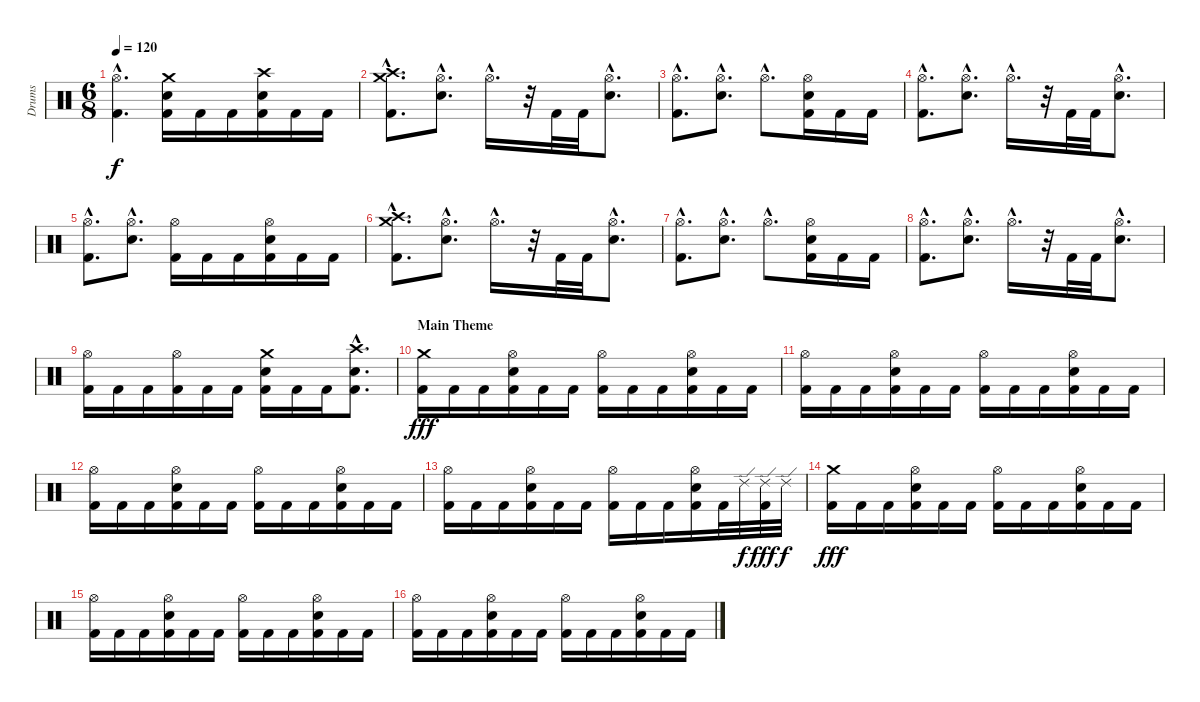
\track ("Drums" "Drums") {instrument percussion}
\staff {score}
\articulation defaults
\ts (6 8)
\tempo 120
\clef neutral
\ks c
("Hi-Hat (open)"{hac} "Kick (hit) 2"{hac}).4{d dy f} ("Crash medium (hit)" "Snare (hit) 2" "Kick (hit) 2").16 "Kick (hit) 2".16 "Kick (hit) 2".16 ("Crash high (hit)" "Snare (hit) 2" "Kick (hit) 2").16 "Kick (hit) 2".16 "Kick (hit) 2".16 |
("Crash medium (hit)"{hac} "Crash high (hit)"{hac} "Kick (hit) 2"{hac}).8{d} ("Hi-Hat (open)"{hac} "Snare (hit) 2"{hac}).8{d} "Hi-Hat (open)"{hac}.16{d} r.32 "Kick (hit) 2".32 "Kick (hit) 2".32 ("Hi-Hat (open)"{hac} "Snare (hit) 2"{hac}).8{d} |
("Hi-Hat (open)"{hac} "Kick (hit) 2"{hac}).8{d} ("Hi-Hat (open)"{hac} "Snare (hit) 2"{hac}).8{d} "Hi-Hat (open)"{hac}.8{d} ("Hi-Hat (open)" "Snare (hit) 2" "Kick (hit) 2").16 "Kick (hit) 2".16 "Kick (hit) 2".16 |
("Hi-Hat (open)"{hac} "Kick (hit) 2"{hac}).8{d} ("Hi-Hat (open)"{hac} "Snare (hit) 2"{hac}).8{d} "Hi-Hat (open)"{hac}.16{d} r.32 "Kick (hit) 2".32 "Kick (hit) 2".32 ("Hi-Hat (open)"{hac} "Snare (hit) 2"{hac}).8{d} |
("Hi-Hat (open)"{hac} "Kick (hit) 2"{hac}).8{d} ("Hi-Hat (open)"{hac} "Snare (hit) 2"{hac}).8{d} ("Hi-Hat (open)" "Kick (hit) 2").16 "Kick (hit) 2".16 "Kick (hit) 2".16 ("Hi-Hat (open)" "Snare (hit) 2" "Kick (hit) 2").16 "Kick (hit) 2".16 "Kick (hit) 2".16 |
("Crash medium (hit)"{hac} "Crash high (hit)"{hac} "Kick (hit) 2"{hac}).8{d} ("Hi-Hat (open)"{hac} "Snare (hit) 2"{hac}).8{d} "Hi-Hat (open)"{hac}.16{d} r.32 "Kick (hit) 2".32 "Kick (hit) 2".32 ("Hi-Hat (open)"{hac} "Snare (hit) 2"{hac}).8{d} |
("Hi-Hat (open)"{hac} "Kick (hit) 2"{hac}).8{d} ("Hi-Hat (open)"{hac} "Snare (hit) 2"{hac}).8{d} "Hi-Hat (open)"{hac}.8{d} ("Hi-Hat (open)" "Snare (hit) 2" "Kick (hit) 2").16 "Kick (hit) 2".16 "Kick (hit) 2".16 |
("Hi-Hat (open)"{hac} "Kick (hit) 2"{hac}).8{d} ("Hi-Hat (open)"{hac} "Snare (hit) 2"{hac}).8{d} "Hi-Hat (open)"{hac}.16{d} r.32 "Kick (hit) 2".32 "Kick (hit) 2".32 ("Hi-Hat (open)"{hac} "Snare (hit) 2"{hac}).8{d} |
("Hi-Hat (open)" "Kick (hit) 2").16 "Kick (hit) 2".16 "Kick (hit) 2".16 ("Hi-Hat (open)" "Kick (hit) 2").16 "Kick (hit) 2".16 "Kick (hit) 2".16 ("Crash medium (hit)" "Snare (hit) 2" "Kick (hit) 2").16 "Kick (hit) 2".16 "Kick (hit) 2".16 ("Crash high (hit)"{hac} "Snare (hit) 2"{hac} "Kick (hit) 2"{hac}).8{d} |
\section ("" "Main Theme")
("Crash medium (hit)" "Kick (hit) 2").16{dy fff} "Kick (hit) 2".16 "Kick (hit) 2".16 ("Hi-Hat (open)" "Snare (hit) 2" "Kick (hit) 2").16 "Kick (hit) 2".16 "Kick (hit) 2".16 ("Hi-Hat (open)" "Kick (hit) 2").16 "Kick (hit) 2".16 "Kick (hit) 2".16 ("Hi-Hat (open)" "Snare (hit) 2" "Kick (hit) 2").16 "Kick (hit) 2".16 "Kick (hit) 2".16 |
("Hi-Hat (open)" "Kick (hit) 2").16 "Kick (hit) 2".16 "Kick (hit) 2".16 ("Hi-Hat (open)" "Snare (hit) 2" "Kick (hit) 2").16 "Kick (hit) 2".16 "Kick (hit) 2".16 ("Hi-Hat (open)" "Kick (hit) 2").16 "Kick (hit) 2".16 "Kick (hit) 2".16 ("Hi-Hat (open)" "Snare (hit) 2" "Kick (hit) 2").16 "Kick (hit) 2".16 "Kick (hit) 2".16 |
("Hi-Hat (open)" "Kick (hit) 2").16 "Kick (hit) 2".16 "Kick (hit) 2".16 ("Hi-Hat (open)" "Snare (hit) 2" "Kick (hit) 2").16 "Kick (hit) 2".16 "Kick (hit) 2".16 ("Hi-Hat (open)" "Kick (hit) 2").16 "Kick (hit) 2".16 "Kick (hit) 2".16 ("Hi-Hat (open)" "Snare (hit) 2" "Kick (hit) 2").16 "Kick (hit) 2".16 "Kick (hit) 2".16 |
("Hi-Hat (open)" "Kick (hit) 2").16 "Kick (hit) 2".16 "Kick (hit) 2".16 ("Hi-Hat (open)" "Snare (hit) 2" "Kick (hit) 2").16 "Kick (hit) 2".16 "Kick (hit) 2".16 ("Hi-Hat (open)" "Kick (hit) 2").16 "Kick (hit) 2".16 "Kick (hit) 2".16 ("Hi-Hat (open)" "Snare (hit) 2" "Kick (hit) 2").16 "Kick (hit) 2".32 "Ride (edge) 2".32{dy f} ("Ride (edge) 2" "Kick (hit) 2").32{dy fff} "Ride (edge) 2".32{dy f} |
("Crash medium (hit)" "Kick (hit) 2").16{dy fff} "Kick (hit) 2".16 "Kick (hit) 2".16 ("Hi-Hat (open)" "Snare (hit) 2" "Kick (hit) 2").16 "Kick (hit) 2".16 "Kick (hit) 2".16 ("Hi-Hat (open)" "Kick (hit) 2").16 "Kick (hit) 2".16 "Kick (hit) 2".16 ("Hi-Hat (open)" "Snare (hit) 2" "Kick (hit) 2").16 "Kick (hit) 2".16 "Kick (hit) 2".16 |
("Hi-Hat (open)" "Kick (hit) 2").16 "Kick (hit) 2".16 "Kick (hit) 2".16 ("Hi-Hat (open)" "Snare (hit) 2" "Kick (hit) 2").16 "Kick (hit) 2".16 "Kick (hit) 2".16 ("Hi-Hat (open)" "Kick (hit) 2").16 "Kick (hit) 2".16 "Kick (hit) 2".16 ("Hi-Hat (open)" "Snare (hit) 2" "Kick (hit) 2").16 "Kick (hit) 2".16 "Kick (hit) 2".16 |
("Hi-Hat (open)" "Kick (hit) 2").16 "Kick (hit) 2".16 "Kick (hit) 2".16 ("Hi-Hat (open)" "Snare (hit) 2" "Kick (hit) 2").16 "Kick (hit) 2".16 "Kick (hit) 2".16 ("Hi-Hat (open)" "Kick (hit) 2").16 "Kick (hit) 2".16 "Kick (hit) 2".16 ("Hi-Hat (open)" "Snare (hit) 2" "Kick (hit) 2").16 "Kick (hit) 2".16 "Kick (hit) 2".16
